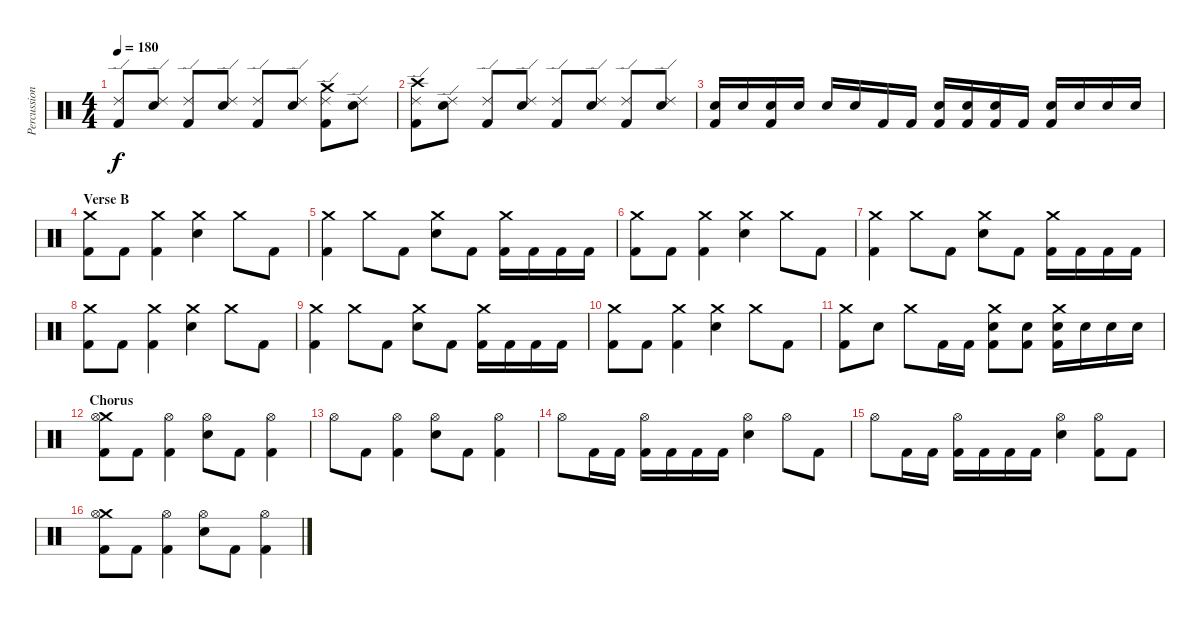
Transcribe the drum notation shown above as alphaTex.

\track ("Percussion" "Percussion") {instrument percussion}
\staff {score}
\articulation defaults
\ts (4 4)
\tempo 180
\clef neutral
\ks c
("Ride (edge) 2" "Kick (hit) 2").8{dy f} ("Ride (edge) 2" "Electric Snare (hit)").8 ("Ride (edge) 2" "Kick (hit) 2").8 ("Ride (edge) 2" "Electric Snare (hit)").8 ("Ride (edge) 2" "Kick (hit) 2").8 ("Ride (edge) 2" "Electric Snare (hit)").8 ("Crash medium (hit)" "Ride (edge) 2" "Kick (hit) 2").8 ("Ride (edge) 2" "Electric Snare (hit)").8 |
("Crash high (hit)" "Ride (edge) 2" "Kick (hit) 2").8 ("Ride (edge) 2" "Electric Snare (hit)").8 ("Ride (edge) 2" "Kick (hit) 2").8 ("Ride (edge) 2" "Electric Snare (hit)").8 ("Ride (edge) 2" "Kick (hit) 2").8 ("Ride (edge) 2" "Electric Snare (hit)").8 ("Ride (edge) 2" "Kick (hit) 2").8 ("Ride (edge) 2" "Electric Snare (hit)").8 |
("Electric Snare (hit)" "Kick (hit) 2").16 "Electric Snare (hit)".16 ("Electric Snare (hit)" "Kick (hit) 2").16 "Electric Snare (hit)".16 "Electric Snare (hit)".16 "Electric Snare (hit)".16 "Kick (hit) 2".16 "Kick (hit) 2".16 ("Electric Snare (hit)" "Kick (hit) 2").16 ("Electric Snare (hit)" "Kick (hit) 2").16 ("Electric Snare (hit)" "Kick (hit) 2").16 "Kick (hit) 2".16 ("Electric Snare (hit)" "Kick (hit) 2").16 "Electric Snare (hit)".16 "Electric Snare (hit)".16 "Electric Snare (hit)".16 |
\section ("" "Verse B")
("Crash medium (hit)" "Kick (hit) 2").8 "Kick (hit) 2".8 ("Crash medium (hit)" "Kick (hit) 2").4 ("Crash medium (hit)" "Electric Snare (hit)").4 "Crash medium (hit)".8 "Kick (hit) 2".8 |
("Crash medium (hit)" "Kick (hit) 2").4 "Crash medium (hit)".8 "Kick (hit) 2".8 ("Crash medium (hit)" "Electric Snare (hit)").8 "Kick (hit) 2".8 ("Crash medium (hit)" "Kick (hit) 2").16 "Kick (hit) 2".16 "Kick (hit) 2".16 "Kick (hit) 2".16 |
("Crash medium (hit)" "Kick (hit) 2").8 "Kick (hit) 2".8 ("Crash medium (hit)" "Kick (hit) 2").4 ("Crash medium (hit)" "Electric Snare (hit)").4 "Crash medium (hit)".8 "Kick (hit) 2".8 |
("Crash medium (hit)" "Kick (hit) 2").4 "Crash medium (hit)".8 "Kick (hit) 2".8 ("Crash medium (hit)" "Electric Snare (hit)").8 "Kick (hit) 2".8 ("Crash medium (hit)" "Kick (hit) 2").16 "Kick (hit) 2".16 "Kick (hit) 2".16 "Kick (hit) 2".16 |
("Crash medium (hit)" "Kick (hit) 2").8 "Kick (hit) 2".8 ("Crash medium (hit)" "Kick (hit) 2").4 ("Crash medium (hit)" "Electric Snare (hit)").4 "Crash medium (hit)".8 "Kick (hit) 2".8 |
("Crash medium (hit)" "Kick (hit) 2").4 "Crash medium (hit)".8 "Kick (hit) 2".8 ("Crash medium (hit)" "Electric Snare (hit)").8 "Kick (hit) 2".8 ("Crash medium (hit)" "Kick (hit) 2").16 "Kick (hit) 2".16 "Kick (hit) 2".16 "Kick (hit) 2".16 |
("Crash medium (hit)" "Kick (hit) 2").8 "Kick (hit) 2".8 ("Crash medium (hit)" "Kick (hit) 2").4 ("Crash medium (hit)" "Electric Snare (hit)").4 "Crash medium (hit)".8 "Kick (hit) 2".8 |
("Crash medium (hit)" "Kick (hit) 2").8 "Electric Snare (hit)".8 "Crash medium (hit)".8 "Kick (hit) 2".16 "Kick (hit) 2".16 ("Crash medium (hit)" "Electric Snare (hit)" "Kick (hit) 2").8 ("Electric Snare (hit)" "Kick (hit) 2").8 ("Crash medium (hit)" "Electric Snare (hit)" "Kick (hit) 2").16 "Electric Snare (hit)".16 "Electric Snare (hit)".16 "Electric Snare (hit)".16 |
\section ("" "Chorus")
("Crash medium (hit)" "Hi-Hat (open)" "Kick (hit) 2").8 "Kick (hit) 2".8 ("Hi-Hat (open)" "Kick (hit) 2").4 ("Hi-Hat (open)" "Electric Snare (hit)").8 "Kick (hit) 2".8 ("Hi-Hat (open)" "Kick (hit) 2").4 |
"Hi-Hat (open)".8 "Kick (hit) 2".8 ("Hi-Hat (open)" "Kick (hit) 2").4 ("Hi-Hat (open)" "Electric Snare (hit)").8 "Kick (hit) 2".8 ("Hi-Hat (open)" "Kick (hit) 2").4 |
"Hi-Hat (open)".8 "Kick (hit) 2".16 "Kick (hit) 2".16 ("Hi-Hat (open)" "Kick (hit) 2").16 "Kick (hit) 2".16 "Kick (hit) 2".16 "Kick (hit) 2".16 ("Hi-Hat (open)" "Electric Snare (hit)").4 "Hi-Hat (open)".8 "Kick (hit) 2".8 |
"Hi-Hat (open)".8 "Kick (hit) 2".16 "Kick (hit) 2".16 ("Hi-Hat (open)" "Kick (hit) 2").16 "Kick (hit) 2".16 "Kick (hit) 2".16 "Kick (hit) 2".16 ("Hi-Hat (open)" "Electric Snare (hit)").4 ("Hi-Hat (open)" "Kick (hit) 2").8 "Kick (hit) 2".8 |
("Crash medium (hit)" "Hi-Hat (open)" "Kick (hit) 2").8 "Kick (hit) 2".8 ("Hi-Hat (open)" "Kick (hit) 2").4 ("Hi-Hat (open)" "Electric Snare (hit)").8 "Kick (hit) 2".8 ("Hi-Hat (open)" "Kick (hit) 2").4
